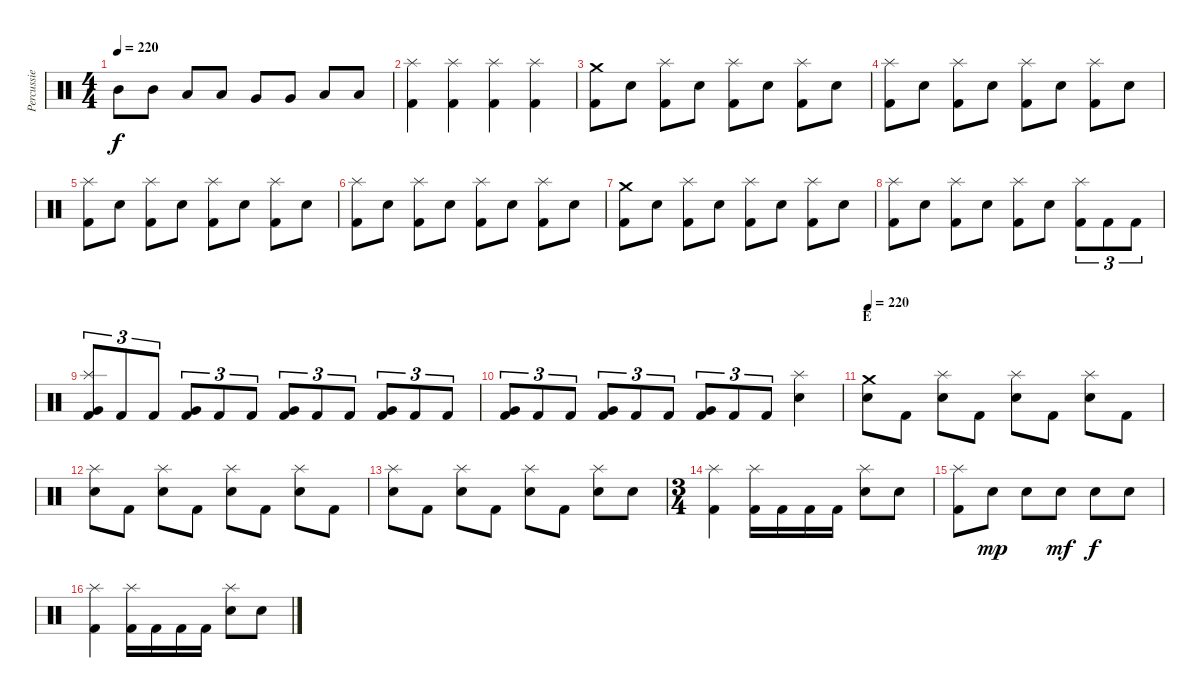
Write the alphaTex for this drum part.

\track ("Percussie" "Percussie") {instrument percussion}
\staff {score}
\articulation defaults
\ts (4 4)
\tempo 220
\clef neutral
\ks c "Mid Tom (hit)".8{dy f} "Mid Tom (hit)".8 "Low Tom (hit)".8 "Low Tom (hit)".8 "Very Low Tom (hit)".8 "Very Low Tom (hit)".8 "Low Floor Tom (hit)".8 "Low Floor Tom (hit)".8
|
("Splash (hit)" "Kick (hit) 2").4 ("Splash (hit)" "Kick (hit) 2").4 ("Splash (hit)" "Kick (hit) 2").4 ("Splash (hit)" "Kick (hit) 2").4 |
("Crash medium (hit)" "Kick (hit) 2").8 "Electric Snare (hit)".8 ("Splash (hit)" "Kick (hit) 2").8 "Electric Snare (hit)".8 ("Splash (hit)" "Kick (hit) 2").8 "Electric Snare (hit)".8 ("Splash (hit)" "Kick (hit) 2").8 "Electric Snare (hit)".8 |
("Splash (hit)" "Kick (hit) 2").8 "Electric Snare (hit)".8 ("Splash (hit)" "Kick (hit) 2").8 "Electric Snare (hit)".8 ("Splash (hit)" "Kick (hit) 2").8 "Electric Snare (hit)".8 ("Splash (hit)" "Kick (hit) 2").8 "Electric Snare (hit)".8 |
("Splash (hit)" "Kick (hit) 2").8 "Electric Snare (hit)".8 ("Splash (hit)" "Kick (hit) 2").8 "Electric Snare (hit)".8 ("Splash (hit)" "Kick (hit) 2").8 "Electric Snare (hit)".8 ("Splash (hit)" "Kick (hit) 2").8 "Electric Snare (hit)".8 |
("Splash (hit)" "Kick (hit) 2").8 "Electric Snare (hit)".8 ("Splash (hit)" "Kick (hit) 2").8 "Electric Snare (hit)".8 ("Splash (hit)" "Kick (hit) 2").8 "Electric Snare (hit)".8 ("Splash (hit)" "Kick (hit) 2").8 "Electric Snare (hit)".8 |
("Crash medium (hit)" "Kick (hit) 2").8 "Electric Snare (hit)".8 ("Splash (hit)" "Kick (hit) 2").8 "Electric Snare (hit)".8 ("Splash (hit)" "Kick (hit) 2").8 "Electric Snare (hit)".8 ("Splash (hit)" "Kick (hit) 2").8 "Electric Snare (hit)".8 |
("Splash (hit)" "Kick (hit) 2").8 "Electric Snare (hit)".8 ("Splash (hit)" "Kick (hit) 2").8 "Electric Snare (hit)".8 ("Splash (hit)" "Kick (hit) 2").8 "Electric Snare (hit)".8 ("Splash (hit)" "Kick (hit) 2").8{tu (3 2)} "Kick (hit) 2".8{tu (3 2)} "Kick (hit) 2".8{tu (3 2)} |
("Splash (hit)" "Very Low Tom (hit)" "Kick (hit) 2").8{tu (3 2)} "Kick (hit) 2".8{tu (3 2)} "Kick (hit) 2".8{tu (3 2)} ("Very Low Tom (hit)" "Kick (hit) 2").8{tu (3 2)} "Kick (hit) 2".8{tu (3 2)} "Kick (hit) 2".8{tu (3 2)} ("Very Low Tom (hit)" "Kick (hit) 2").8{tu (3 2)} "Kick (hit) 2".8{tu (3 2)} "Kick (hit) 2".8{tu (3 2)} ("Very Low Tom (hit)" "Kick (hit) 2").8{tu (3 2)} "Kick (hit) 2".8{tu (3 2)} "Kick (hit) 2".8{tu (3 2)} |
("Very Low Tom (hit)" "Kick (hit) 2").8{tu (3 2)} "Kick (hit) 2".8{tu (3 2)} "Kick (hit) 2".8{tu (3 2)} ("Very Low Tom (hit)" "Kick (hit) 2").8{tu (3 2)} "Kick (hit) 2".8{tu (3 2)} "Kick (hit) 2".8{tu (3 2)} ("Very Low Tom (hit)" "Kick (hit) 2").8{tu (3 2)} "Kick (hit) 2".8{tu (3 2)} "Kick (hit) 2".8{tu (3 2)} ("Splash (hit)" "Electric Snare (hit)").4 |
\section ("" "E")
\tempo 220
("Crash medium (hit)" "Electric Snare (hit)").8 "Kick (hit) 2".8 ("Splash (hit)" "Electric Snare (hit)").8 "Kick (hit) 2".8 ("Splash (hit)" "Electric Snare (hit)").8 "Kick (hit) 2".8 ("Splash (hit)" "Electric Snare (hit)").8 "Kick (hit) 2".8 |
("Splash (hit)" "Electric Snare (hit)").8 "Kick (hit) 2".8 ("Splash (hit)" "Electric Snare (hit)").8 "Kick (hit) 2".8 ("Splash (hit)" "Electric Snare (hit)").8 "Kick (hit) 2".8 ("Splash (hit)" "Electric Snare (hit)").8 "Kick (hit) 2".8 |
("Splash (hit)" "Electric Snare (hit)").8 "Kick (hit) 2".8 ("Splash (hit)" "Electric Snare (hit)").8 "Kick (hit) 2".8 ("Splash (hit)" "Electric Snare (hit)").8 "Kick (hit) 2".8 ("Splash (hit)" "Electric Snare (hit)").8 "Electric Snare (hit)".8 |
\ts (3 4)
("Splash (hit)" "Kick (hit) 2").4 ("Splash (hit)" "Kick (hit) 2").16 "Kick (hit) 2".16 "Kick (hit) 2".16 "Kick (hit) 2".16 ("Splash (hit)" "Electric Snare (hit)").8 "Electric Snare (hit)".8 |
("Splash (hit)" "Kick (hit) 2").8 "Electric Snare (hit)".8{dy mp} "Electric Snare (hit)".8 "Electric Snare (hit)".8{dy mf} "Electric Snare (hit)".8{dy f} "Electric Snare (hit)".8 |
("Splash (hit)" "Kick (hit) 2").4 ("Splash (hit)" "Kick (hit) 2").16 "Kick (hit) 2".16 "Kick (hit) 2".16 "Kick (hit) 2".16 ("Splash (hit)" "Electric Snare (hit)").8 "Electric Snare (hit)".8
